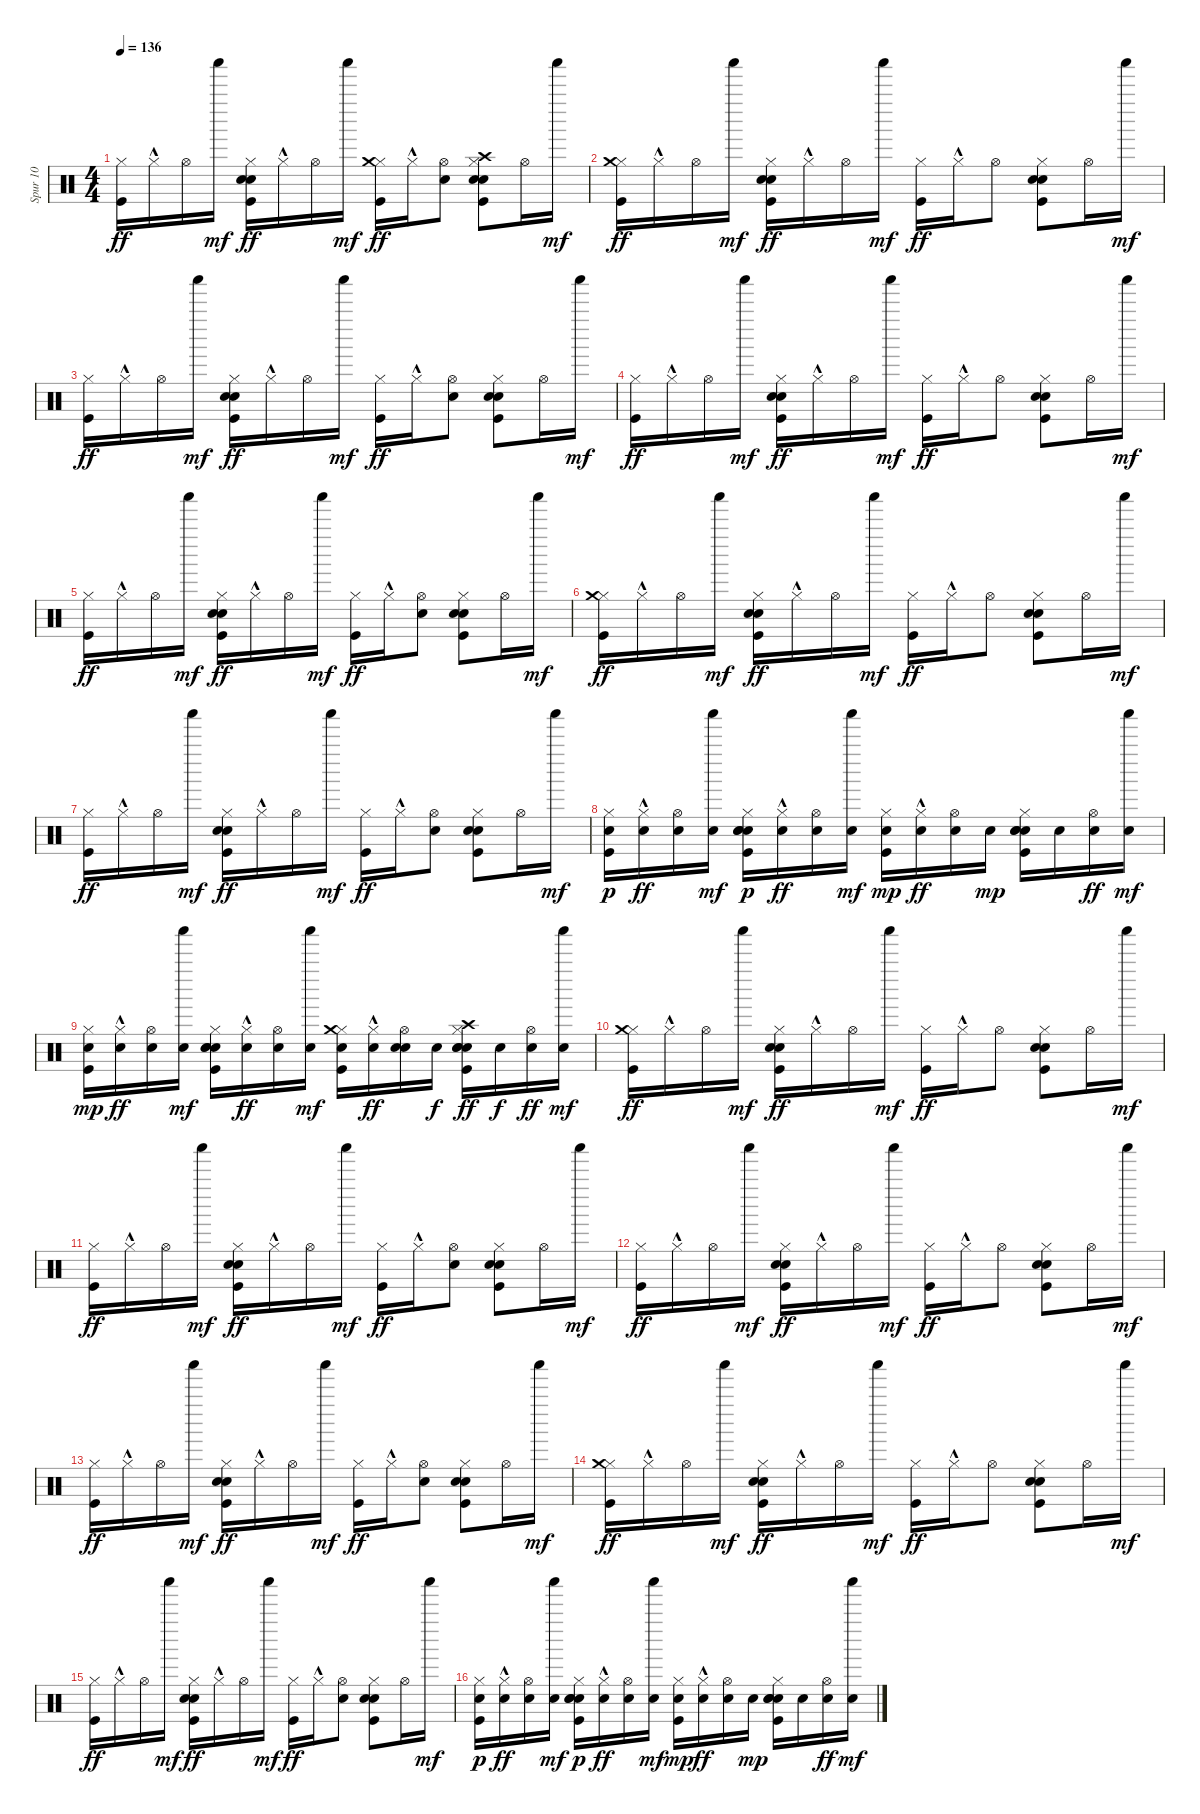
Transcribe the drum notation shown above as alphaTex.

\track ("Spur 10" "Spur 10") {instrument percussion}
\staff {score}
\articulation defaults
\ts (4 4)
\tempo 136
\clef neutral
\ks c
("Kick (hit)" "Hi-Hat (closed)").16{dy ff} "Hi-Hat (closed)"{hac}.16 "Hi-Hat (open)".16 "Shaker (hit)".16{dy mf} ("Kick (hit)" "Electric Snare (hit)" "Hi-Hat (closed)" "Hand Clap (hit)").16{dy ff} "Hi-Hat (closed)"{hac}.16 "Hi-Hat (open)".16 "Shaker (hit)".16{dy mf} ("Kick (hit)" "Hi-Hat (closed)" "Crash medium (hit)").16{dy ff} "Hi-Hat (closed)"{hac}.16 ("Hi-Hat (open)" "Hand Clap (hit)").8 ("Kick (hit)" "Electric Snare (hit)" "Hi-Hat (closed)" "Crash high (hit)" "Hand Clap (hit)").8 "Hi-Hat (open)".16 "Shaker (hit)".16{dy mf} |
("Kick (hit)" "Hi-Hat (closed)" "Crash medium (hit)").16{dy ff} "Hi-Hat (closed)"{hac}.16 "Hi-Hat (open)".16 "Shaker (hit)".16{dy mf} ("Kick (hit)" "Electric Snare (hit)" "Hi-Hat (closed)" "Hand Clap (hit)").16{dy ff} "Hi-Hat (closed)"{hac}.16 "Hi-Hat (open)".16 "Shaker (hit)".16{dy mf} ("Kick (hit)" "Hi-Hat (closed)").16{dy ff} "Hi-Hat (closed)"{hac}.16 "Hi-Hat (open)".8 ("Kick (hit)" "Electric Snare (hit)" "Hi-Hat (closed)" "Hand Clap (hit)").8 "Hi-Hat (open)".16 "Shaker (hit)".16{dy mf} |
("Kick (hit)" "Hi-Hat (closed)").16{dy ff} "Hi-Hat (closed)"{hac}.16 "Hi-Hat (open)".16 "Shaker (hit)".16{dy mf} ("Kick (hit)" "Electric Snare (hit)" "Hi-Hat (closed)" "Hand Clap (hit)").16{dy ff} "Hi-Hat (closed)"{hac}.16 "Hi-Hat (open)".16 "Shaker (hit)".16{dy mf} ("Kick (hit)" "Hi-Hat (closed)").16{dy ff} "Hi-Hat (closed)"{hac}.16 ("Hi-Hat (open)" "Hand Clap (hit)").8 ("Kick (hit)" "Electric Snare (hit)" "Hi-Hat (closed)" "Hand Clap (hit)").8 "Hi-Hat (open)".16 "Shaker (hit)".16{dy mf} |
("Kick (hit)" "Hi-Hat (closed)").16{dy ff} "Hi-Hat (closed)"{hac}.16 "Hi-Hat (open)".16 "Shaker (hit)".16{dy mf} ("Kick (hit)" "Electric Snare (hit)" "Hi-Hat (closed)" "Hand Clap (hit)").16{dy ff} "Hi-Hat (closed)"{hac}.16 "Hi-Hat (open)".16 "Shaker (hit)".16{dy mf} ("Kick (hit)" "Hi-Hat (closed)").16{dy ff} "Hi-Hat (closed)"{hac}.16 "Hi-Hat (open)".8 ("Kick (hit)" "Electric Snare (hit)" "Hi-Hat (closed)" "Hand Clap (hit)").8 "Hi-Hat (open)".16 "Shaker (hit)".16{dy mf} |
("Kick (hit)" "Hi-Hat (closed)").16{dy ff} "Hi-Hat (closed)"{hac}.16 "Hi-Hat (open)".16 "Shaker (hit)".16{dy mf} ("Kick (hit)" "Electric Snare (hit)" "Hi-Hat (closed)" "Hand Clap (hit)").16{dy ff} "Hi-Hat (closed)"{hac}.16 "Hi-Hat (open)".16 "Shaker (hit)".16{dy mf} ("Kick (hit)" "Hi-Hat (closed)").16{dy ff} "Hi-Hat (closed)"{hac}.16 ("Hi-Hat (open)" "Hand Clap (hit)").8 ("Kick (hit)" "Electric Snare (hit)" "Hi-Hat (closed)" "Hand Clap (hit)").8 "Hi-Hat (open)".16 "Shaker (hit)".16{dy mf} |
("Kick (hit)" "Hi-Hat (closed)" "Crash medium (hit)").16{dy ff} "Hi-Hat (closed)"{hac}.16 "Hi-Hat (open)".16 "Shaker (hit)".16{dy mf} ("Kick (hit)" "Electric Snare (hit)" "Hi-Hat (closed)" "Hand Clap (hit)").16{dy ff} "Hi-Hat (closed)"{hac}.16 "Hi-Hat (open)".16 "Shaker (hit)".16{dy mf} ("Kick (hit)" "Hi-Hat (closed)").16{dy ff} "Hi-Hat (closed)"{hac}.16 "Hi-Hat (open)".8 ("Kick (hit)" "Electric Snare (hit)" "Hi-Hat (closed)" "Hand Clap (hit)").8 "Hi-Hat (open)".16 "Shaker (hit)".16{dy mf} |
("Kick (hit)" "Hi-Hat (closed)").16{dy ff} "Hi-Hat (closed)"{hac}.16 "Hi-Hat (open)".16 "Shaker (hit)".16{dy mf} ("Kick (hit)" "Electric Snare (hit)" "Hi-Hat (closed)" "Hand Clap (hit)").16{dy ff} "Hi-Hat (closed)"{hac}.16 "Hi-Hat (open)".16 "Shaker (hit)".16{dy mf} ("Kick (hit)" "Hi-Hat (closed)").16{dy ff} "Hi-Hat (closed)"{hac}.16 ("Hi-Hat (open)" "Hand Clap (hit)").8 ("Kick (hit)" "Electric Snare (hit)" "Hi-Hat (closed)" "Hand Clap (hit)").8 "Hi-Hat (open)".16 "Shaker (hit)".16{dy mf} |
("Kick (hit)" "Snare (hit) 2" "Hi-Hat (closed)").16{dy p} ("Snare (hit) 2" "Hi-Hat (closed)"{hac}).16{dy ff} ("Snare (hit) 2" "Hi-Hat (open)").16 ("Snare (hit) 2" "Shaker (hit)").16{dy mf} ("Kick (hit)" "Electric Snare (hit)" "Snare (hit) 2" "Hi-Hat (closed)" "Hand Clap (hit)").16{dy p} ("Snare (hit) 2" "Hi-Hat (closed)"{hac}).16{dy ff} ("Snare (hit) 2" "Hi-Hat (open)").16 ("Snare (hit) 2" "Shaker (hit)").16{dy mf} ("Kick (hit)" "Snare (hit) 2" "Hi-Hat (closed)").16{dy mp} ("Snare (hit) 2" "Hi-Hat (closed)"{hac}).16{dy ff} ("Snare (hit) 2" "Hi-Hat (open)").16 "Snare (hit) 2".16{dy mp} ("Kick (hit)" "Electric Snare (hit)" "Snare (hit) 2" "Hi-Hat (closed)" "Hand Clap (hit)").16 "Snare (hit) 2".16 ("Snare (hit) 2" "Hi-Hat (open)").16{dy ff} ("Snare (hit) 2" "Shaker (hit)").16{dy mf} |
("Kick (hit)" "Snare (hit) 2" "Hi-Hat (closed)").16{dy mp} ("Snare (hit) 2" "Hi-Hat (closed)"{hac}).16{dy ff} ("Snare (hit) 2" "Hi-Hat (open)").16 ("Snare (hit) 2" "Shaker (hit)").16{dy mf} ("Kick (hit)" "Electric Snare (hit)" "Snare (hit) 2" "Hi-Hat (closed)" "Hand Clap (hit)").16 ("Snare (hit) 2" "Hi-Hat (closed)"{hac}).16{dy ff} ("Snare (hit) 2" "Hi-Hat (open)").16 ("Snare (hit) 2" "Shaker (hit)").16{dy mf} ("Kick (hit)" "Snare (hit) 2" "Hi-Hat (closed)" "Crash medium (hit)").16 ("Snare (hit) 2" "Hi-Hat (closed)"{hac}).16{dy ff} ("Snare (hit) 2" "Hi-Hat (open)" "Hand Clap (hit)").16 "Snare (hit) 2".16{dy f} ("Kick (hit)" "Electric Snare (hit)" "Snare (hit) 2" "Hi-Hat (closed)" "Crash high (hit)" "Hand Clap (hit)").16{dy ff} "Snare (hit) 2".16{dy f} ("Snare (hit) 2" "Hi-Hat (open)").16{dy ff} ("Snare (hit) 2" "Shaker (hit)").16{dy mf} |
("Kick (hit)" "Hi-Hat (closed)" "Crash medium (hit)").16{dy ff} "Hi-Hat (closed)"{hac}.16 "Hi-Hat (open)".16 "Shaker (hit)".16{dy mf} ("Kick (hit)" "Electric Snare (hit)" "Hi-Hat (closed)" "Hand Clap (hit)").16{dy ff} "Hi-Hat (closed)"{hac}.16 "Hi-Hat (open)".16 "Shaker (hit)".16{dy mf} ("Kick (hit)" "Hi-Hat (closed)").16{dy ff} "Hi-Hat (closed)"{hac}.16 "Hi-Hat (open)".8 ("Kick (hit)" "Electric Snare (hit)" "Hi-Hat (closed)" "Hand Clap (hit)").8 "Hi-Hat (open)".16 "Shaker (hit)".16{dy mf} |
("Kick (hit)" "Hi-Hat (closed)").16{dy ff} "Hi-Hat (closed)"{hac}.16 "Hi-Hat (open)".16 "Shaker (hit)".16{dy mf} ("Kick (hit)" "Electric Snare (hit)" "Hi-Hat (closed)" "Hand Clap (hit)").16{dy ff} "Hi-Hat (closed)"{hac}.16 "Hi-Hat (open)".16 "Shaker (hit)".16{dy mf} ("Kick (hit)" "Hi-Hat (closed)").16{dy ff} "Hi-Hat (closed)"{hac}.16 ("Hi-Hat (open)" "Hand Clap (hit)").8 ("Kick (hit)" "Electric Snare (hit)" "Hi-Hat (closed)" "Hand Clap (hit)").8 "Hi-Hat (open)".16 "Shaker (hit)".16{dy mf} |
("Kick (hit)" "Hi-Hat (closed)").16{dy ff} "Hi-Hat (closed)"{hac}.16 "Hi-Hat (open)".16 "Shaker (hit)".16{dy mf} ("Kick (hit)" "Electric Snare (hit)" "Hi-Hat (closed)" "Hand Clap (hit)").16{dy ff} "Hi-Hat (closed)"{hac}.16 "Hi-Hat (open)".16 "Shaker (hit)".16{dy mf} ("Kick (hit)" "Hi-Hat (closed)").16{dy ff} "Hi-Hat (closed)"{hac}.16 "Hi-Hat (open)".8 ("Kick (hit)" "Electric Snare (hit)" "Hi-Hat (closed)" "Hand Clap (hit)").8 "Hi-Hat (open)".16 "Shaker (hit)".16{dy mf} |
("Kick (hit)" "Hi-Hat (closed)").16{dy ff} "Hi-Hat (closed)"{hac}.16 "Hi-Hat (open)".16 "Shaker (hit)".16{dy mf} ("Kick (hit)" "Electric Snare (hit)" "Hi-Hat (closed)" "Hand Clap (hit)").16{dy ff} "Hi-Hat (closed)"{hac}.16 "Hi-Hat (open)".16 "Shaker (hit)".16{dy mf} ("Kick (hit)" "Hi-Hat (closed)").16{dy ff} "Hi-Hat (closed)"{hac}.16 ("Hi-Hat (open)" "Hand Clap (hit)").8 ("Kick (hit)" "Electric Snare (hit)" "Hi-Hat (closed)" "Hand Clap (hit)").8 "Hi-Hat (open)".16 "Shaker (hit)".16{dy mf} |
("Kick (hit)" "Hi-Hat (closed)" "Crash medium (hit)").16{dy ff} "Hi-Hat (closed)"{hac}.16 "Hi-Hat (open)".16 "Shaker (hit)".16{dy mf} ("Kick (hit)" "Electric Snare (hit)" "Hi-Hat (closed)" "Hand Clap (hit)").16{dy ff} "Hi-Hat (closed)"{hac}.16 "Hi-Hat (open)".16 "Shaker (hit)".16{dy mf} ("Kick (hit)" "Hi-Hat (closed)").16{dy ff} "Hi-Hat (closed)"{hac}.16 "Hi-Hat (open)".8 ("Kick (hit)" "Electric Snare (hit)" "Hi-Hat (closed)" "Hand Clap (hit)").8 "Hi-Hat (open)".16 "Shaker (hit)".16{dy mf} |
("Kick (hit)" "Hi-Hat (closed)").16{dy ff} "Hi-Hat (closed)"{hac}.16 "Hi-Hat (open)".16 "Shaker (hit)".16{dy mf} ("Kick (hit)" "Electric Snare (hit)" "Hi-Hat (closed)" "Hand Clap (hit)").16{dy ff} "Hi-Hat (closed)"{hac}.16 "Hi-Hat (open)".16 "Shaker (hit)".16{dy mf} ("Kick (hit)" "Hi-Hat (closed)").16{dy ff} "Hi-Hat (closed)"{hac}.16 ("Hi-Hat (open)" "Hand Clap (hit)").8 ("Kick (hit)" "Electric Snare (hit)" "Hi-Hat (closed)" "Hand Clap (hit)").8 "Hi-Hat (open)".16 "Shaker (hit)".16{dy mf} |
("Kick (hit)" "Snare (hit) 2" "Hi-Hat (closed)").16{dy p} ("Snare (hit) 2" "Hi-Hat (closed)"{hac}).16{dy ff} ("Snare (hit) 2" "Hi-Hat (open)").16 ("Snare (hit) 2" "Shaker (hit)").16{dy mf} ("Kick (hit)" "Electric Snare (hit)" "Snare (hit) 2" "Hi-Hat (closed)" "Hand Clap (hit)").16{dy p} ("Snare (hit) 2" "Hi-Hat (closed)"{hac}).16{dy ff} ("Snare (hit) 2" "Hi-Hat (open)").16 ("Snare (hit) 2" "Shaker (hit)").16{dy mf} ("Kick (hit)" "Snare (hit) 2" "Hi-Hat (closed)").16{dy mp} ("Snare (hit) 2" "Hi-Hat (closed)"{hac}).16{dy ff} ("Snare (hit) 2" "Hi-Hat (open)").16 "Snare (hit) 2".16{dy mp} ("Kick (hit)" "Electric Snare (hit)" "Snare (hit) 2" "Hi-Hat (closed)" "Hand Clap (hit)").16 "Snare (hit) 2".16 ("Snare (hit) 2" "Hi-Hat (open)").16{dy ff} ("Snare (hit) 2" "Shaker (hit)").16{dy mf}
